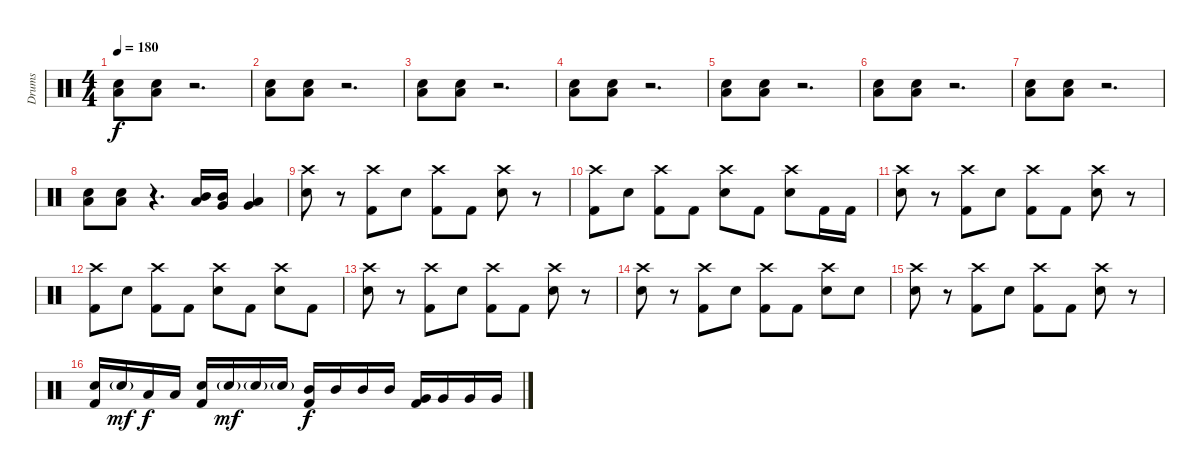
\track ("Drums" "Drums") {instrument percussion}
\staff {score}
\articulation defaults
\ts (4 4)
\tempo 180
\clef neutral
\ks c
("Low Floor Tom (hit)" "Electric Snare (hit)").8{dy f} ("Low Floor Tom (hit)" "Electric Snare (hit)").8 r.2{d} |
("Low Floor Tom (hit)" "Electric Snare (hit)").8 ("Low Floor Tom (hit)" "Electric Snare (hit)").8 r.2{d} |
("Low Floor Tom (hit)" "Electric Snare (hit)").8 ("Low Floor Tom (hit)" "Electric Snare (hit)").8 r.2{d} |
("Low Floor Tom (hit)" "Electric Snare (hit)").8 ("Low Floor Tom (hit)" "Electric Snare (hit)").8 r.2{d} |
("Low Floor Tom (hit)" "Electric Snare (hit)").8 ("Low Floor Tom (hit)" "Electric Snare (hit)").8 r.2{d} |
("Low Floor Tom (hit)" "Electric Snare (hit)").8 ("Low Floor Tom (hit)" "Electric Snare (hit)").8 r.2{d} |
("Low Floor Tom (hit)" "Electric Snare (hit)").8 ("Low Floor Tom (hit)" "Electric Snare (hit)").8 r.2{d} |
("Low Floor Tom (hit)" "Electric Snare (hit)").8 ("Low Floor Tom (hit)" "Electric Snare (hit)").8 r.4{d} ("Mid Tom (hit)" "Low Tom (hit)").16 ("Mid Tom (hit)" "Very Low Tom (hit)").16 ("Low Tom (hit)" "Very Low Tom (hit)").4 |
("Crash high (hit)" "Electric Snare (hit)").8 r.8 ("Crash high (hit)" "Kick (hit) 2").8 "Electric Snare (hit)".8 ("Crash high (hit)" "Kick (hit) 2").8 "Kick (hit) 2".8 ("Crash high (hit)" "Electric Snare (hit)").8 r.8 |
("Crash high (hit)" "Kick (hit) 2").8 "Electric Snare (hit)".8 ("Crash high (hit)" "Kick (hit) 2").8 "Kick (hit) 2".8 ("Crash high (hit)" "Electric Snare (hit)").8 "Kick (hit) 2".8 ("Crash high (hit)" "Electric Snare (hit)").8 "Kick (hit) 2".16 "Kick (hit) 2".16 |
("Crash high (hit)" "Electric Snare (hit)").8 r.8 ("Crash high (hit)" "Kick (hit) 2").8 "Electric Snare (hit)".8 ("Crash high (hit)" "Kick (hit) 2").8 "Kick (hit) 2".8 ("Crash high (hit)" "Electric Snare (hit)").8 r.8 |
("Crash high (hit)" "Kick (hit) 2").8 "Electric Snare (hit)".8 ("Crash high (hit)" "Kick (hit) 2").8 "Kick (hit) 2".8 ("Crash high (hit)" "Electric Snare (hit)").8 "Kick (hit) 2".8 ("Crash high (hit)" "Electric Snare (hit)").8 "Kick (hit) 2".8 |
("Crash high (hit)" "Electric Snare (hit)").8 r.8 ("Crash high (hit)" "Kick (hit) 2").8 "Electric Snare (hit)".8 ("Crash high (hit)" "Kick (hit) 2").8 "Kick (hit) 2".8 ("Crash high (hit)" "Electric Snare (hit)").8 r.8 |
("Crash high (hit)" "Electric Snare (hit)").8 r.8 ("Crash high (hit)" "Kick (hit) 2").8 "Electric Snare (hit)".8 ("Crash high (hit)" "Kick (hit) 2").8 "Kick (hit) 2".8 ("Crash high (hit)" "Electric Snare (hit)").8 "Electric Snare (hit)".8 |
("Crash high (hit)" "Electric Snare (hit)").8 r.8 ("Crash high (hit)" "Kick (hit) 2").8 "Electric Snare (hit)".8 ("Crash high (hit)" "Kick (hit) 2").8 "Kick (hit) 2".8 ("Crash high (hit)" "Electric Snare (hit)").8 r.8 |
("Electric Snare (hit)" "Kick (hit) 2").16 "Electric Snare (hit)"{g}.16{dy mf} "Low Tom (hit)".16{dy f} "Low Tom (hit)".16 ("Electric Snare (hit)" "Kick (hit) 2").16 "Electric Snare (hit)"{g}.16{dy mf} "Electric Snare (hit)"{g}.16 "Electric Snare (hit)"{g}.16 ("Mid Tom (hit)" "Kick (hit) 2").16{dy f} "Mid Tom (hit)".16 "Mid Tom (hit)".16 "Mid Tom (hit)".16 ("Very Low Tom (hit)" "Kick (hit) 2").16 "Very Low Tom (hit)".16 "Very Low Tom (hit)".16 "Very Low Tom (hit)".16
